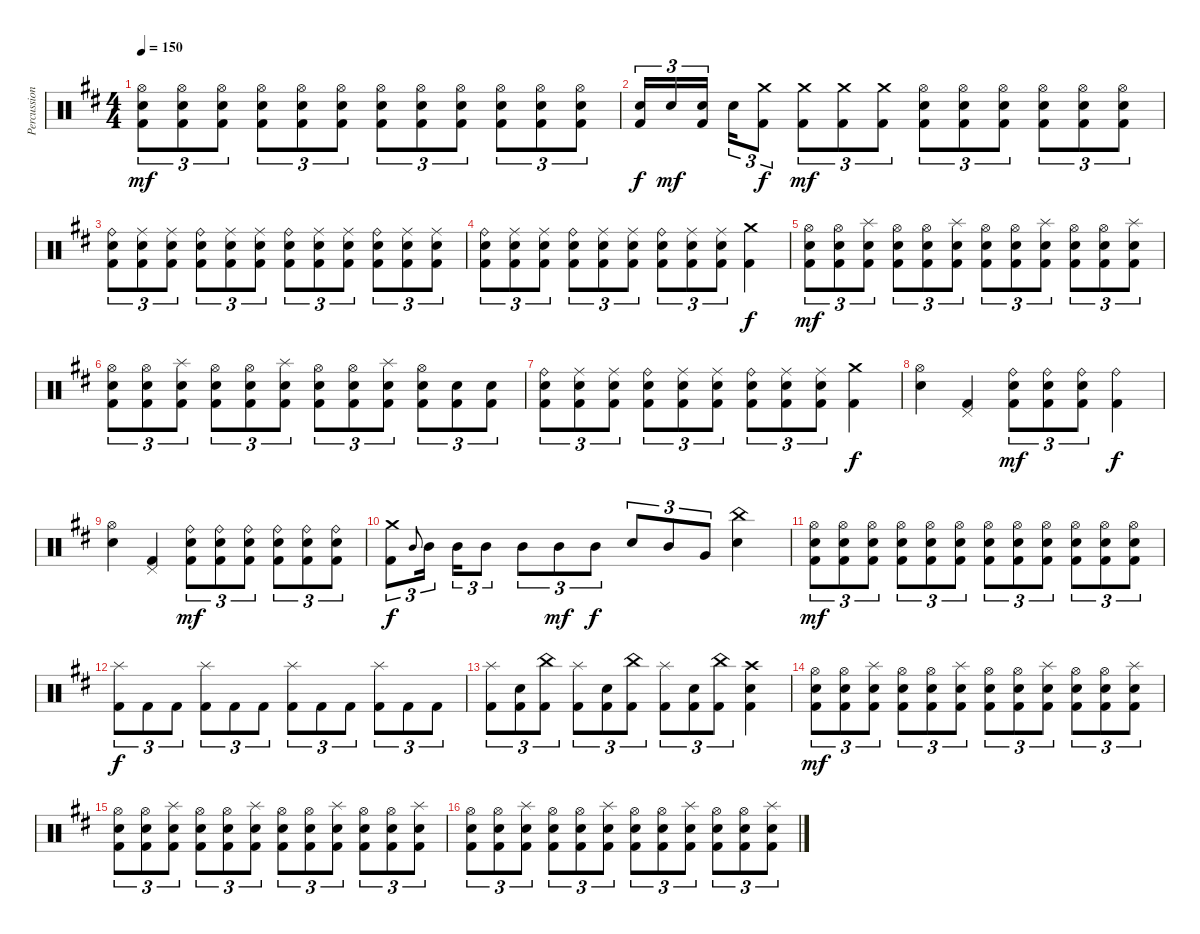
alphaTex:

\track ("Percussion" "Percussion") {instrument percussion}
\staff {score}
\articulation defaults
\ts (4 4)
\tempo 150
\clef neutral
\ks bminor
("Hi-Hat (open)" "Snare (hit) 2" "Kick (hit) 2").8{tu (3 2) dy mf} ("Hi-Hat (open)" "Snare (hit) 2" "Kick (hit) 2").8{tu (3 2)} ("Hi-Hat (open)" "Snare (hit) 2" "Kick (hit) 2").8{tu (3 2)} ("Hi-Hat (open)" "Snare (hit) 2" "Kick (hit) 2").8{tu (3 2)} ("Hi-Hat (open)" "Snare (hit) 2" "Kick (hit) 2").8{tu (3 2)} ("Hi-Hat (open)" "Snare (hit) 2" "Kick (hit) 2").8{tu (3 2)} ("Hi-Hat (open)" "Snare (hit) 2" "Kick (hit) 2").8{tu (3 2)} ("Hi-Hat (open)" "Snare (hit) 2" "Kick (hit) 2").8{tu (3 2)} ("Hi-Hat (open)" "Snare (hit) 2" "Kick (hit) 2").8{tu (3 2)} ("Hi-Hat (open)" "Snare (hit) 2" "Kick (hit) 2").8{tu (3 2)} ("Hi-Hat (open)" "Snare (hit) 2" "Kick (hit) 2").8{tu (3 2)} ("Hi-Hat (open)" "Snare (hit) 2" "Kick (hit) 2").8{tu (3 2)} |
("Snare (hit) 2" "Kick (hit) 2").16{tu (3 2) dy f} "Snare (hit) 2".16{tu (3 2) dy mf} ("Snare (hit) 2" "Kick (hit) 2").16{tu (3 2) beam splitsecondary} "Snare (hit) 2".16{tu (3 2)} ("Crash medium (hit)" "Kick (hit) 2").8{tu (3 2) dy f} ("Crash medium (hit)" "Kick (hit) 2").8{tu (3 2) dy mf} ("Crash medium (hit)" "Kick (hit) 2").8{tu (3 2)} ("Crash medium (hit)" "Kick (hit) 2").8{tu (3 2)} ("Hi-Hat (open)" "Snare (hit) 2" "Kick (hit) 2").8{tu (3 2)} ("Hi-Hat (open)" "Snare (hit) 2" "Kick (hit) 2").8{tu (3 2)} ("Hi-Hat (open)" "Snare (hit) 2" "Kick (hit) 2").8{tu (3 2)} ("Hi-Hat (open)" "Snare (hit) 2" "Kick (hit) 2").8{tu (3 2)} ("Hi-Hat (open)" "Snare (hit) 2" "Kick (hit) 2").8{tu (3 2)} ("Hi-Hat (open)" "Snare (hit) 2" "Kick (hit) 2").8{tu (3 2)} |
("Ride (bell)" "Snare (hit) 2" "Kick (hit) 2").8{tu (3 2)} ("Ride (middle)" "Snare (hit) 2" "Kick (hit) 2").8{tu (3 2)} ("Ride (middle)" "Snare (hit) 2" "Kick (hit) 2").8{tu (3 2)} ("Ride (bell)" "Snare (hit) 2" "Kick (hit) 2").8{tu (3 2)} ("Ride (middle)" "Snare (hit) 2" "Kick (hit) 2").8{tu (3 2)} ("Ride (middle)" "Snare (hit) 2" "Kick (hit) 2").8{tu (3 2)} ("Ride (bell)" "Snare (hit) 2" "Kick (hit) 2").8{tu (3 2)} ("Ride (middle)" "Snare (hit) 2" "Kick (hit) 2").8{tu (3 2)} ("Ride (middle)" "Snare (hit) 2" "Kick (hit) 2").8{tu (3 2)} ("Ride (bell)" "Snare (hit) 2" "Kick (hit) 2").8{tu (3 2)} ("Ride (middle)" "Snare (hit) 2" "Kick (hit) 2").8{tu (3 2)} ("Ride (middle)" "Snare (hit) 2" "Kick (hit) 2").8{tu (3 2)} |
("Ride (bell)" "Snare (hit) 2" "Kick (hit) 2").8{tu (3 2)} ("Ride (middle)" "Snare (hit) 2" "Kick (hit) 2").8{tu (3 2)} ("Ride (middle)" "Snare (hit) 2" "Kick (hit) 2").8{tu (3 2)} ("Ride (bell)" "Snare (hit) 2" "Kick (hit) 2").8{tu (3 2)} ("Ride (middle)" "Snare (hit) 2" "Kick (hit) 2").8{tu (3 2)} ("Ride (middle)" "Snare (hit) 2" "Kick (hit) 2").8{tu (3 2)} ("Ride (bell)" "Snare (hit) 2" "Kick (hit) 2").8{tu (3 2)} ("Ride (middle)" "Snare (hit) 2" "Kick (hit) 2").8{tu (3 2)} ("Ride (middle)" "Snare (hit) 2" "Kick (hit) 2").8{tu (3 2)} ("Crash medium (hit)" "Kick (hit) 2").4{dy f} |
("Hi-Hat (open)" "Snare (hit) 2" "Kick (hit) 2").8{tu (3 2) dy mf} ("Hi-Hat (open)" "Snare (hit) 2" "Kick (hit) 2").8{tu (3 2)} ("Splash (hit)" "Snare (hit) 2" "Kick (hit) 2").8{tu (3 2)} ("Hi-Hat (open)" "Snare (hit) 2" "Kick (hit) 2").8{tu (3 2)} ("Hi-Hat (open)" "Snare (hit) 2" "Kick (hit) 2").8{tu (3 2)} ("Splash (hit)" "Snare (hit) 2" "Kick (hit) 2").8{tu (3 2)} ("Hi-Hat (open)" "Snare (hit) 2" "Kick (hit) 2").8{tu (3 2)} ("Hi-Hat (open)" "Snare (hit) 2" "Kick (hit) 2").8{tu (3 2)} ("Splash (hit)" "Snare (hit) 2" "Kick (hit) 2").8{tu (3 2)} ("Hi-Hat (open)" "Snare (hit) 2" "Kick (hit) 2").8{tu (3 2)} ("Hi-Hat (open)" "Snare (hit) 2" "Kick (hit) 2").8{tu (3 2)} ("Splash (hit)" "Snare (hit) 2" "Kick (hit) 2").8{tu (3 2)} |
("Hi-Hat (open)" "Snare (hit) 2" "Kick (hit) 2").8{tu (3 2)} ("Hi-Hat (open)" "Snare (hit) 2" "Kick (hit) 2").8{tu (3 2)} ("Splash (hit)" "Snare (hit) 2" "Kick (hit) 2").8{tu (3 2)} ("Hi-Hat (open)" "Snare (hit) 2" "Kick (hit) 2").8{tu (3 2)} ("Hi-Hat (open)" "Snare (hit) 2" "Kick (hit) 2").8{tu (3 2)} ("Splash (hit)" "Snare (hit) 2" "Kick (hit) 2").8{tu (3 2)} ("Hi-Hat (open)" "Snare (hit) 2" "Kick (hit) 2").8{tu (3 2)} ("Hi-Hat (open)" "Snare (hit) 2" "Kick (hit) 2").8{tu (3 2)} ("Splash (hit)" "Snare (hit) 2" "Kick (hit) 2").8{tu (3 2)} ("Hi-Hat (open)" "Snare (hit) 2" "Kick (hit) 2").8{tu (3 2)} ("Snare (hit) 2" "Kick (hit) 2").8{tu (3 2)} ("Snare (hit) 2" "Kick (hit) 2").8{tu (3 2)} |
("Ride (bell)" "Snare (hit) 2" "Kick (hit) 2").8{tu (3 2)} ("Ride (middle)" "Snare (hit) 2" "Kick (hit) 2").8{tu (3 2)} ("Ride (middle)" "Snare (hit) 2" "Kick (hit) 2").8{tu (3 2)} ("Ride (bell)" "Snare (hit) 2" "Kick (hit) 2").8{tu (3 2)} ("Ride (middle)" "Snare (hit) 2" "Kick (hit) 2").8{tu (3 2)} ("Ride (middle)" "Snare (hit) 2" "Kick (hit) 2").8{tu (3 2)} ("Ride (bell)" "Snare (hit) 2" "Kick (hit) 2").8{tu (3 2)} ("Ride (middle)" "Snare (hit) 2" "Kick (hit) 2").8{tu (3 2)} ("Ride (middle)" "Snare (hit) 2" "Kick (hit) 2").8{tu (3 2)} ("Crash medium (hit)" "Kick (hit) 2").4{dy f} |
("Hi-Hat (open)" "Snare (hit) 2").4 ("Pedal Hi-Hat (hit)" "Kick (hit) 2").4 ("Ride (bell)" "Snare (hit) 2" "Kick (hit) 2").8{tu (3 2) dy mf} ("Ride (bell)" "Snare (hit) 2" "Kick (hit) 2").8{tu (3 2)} ("Ride (bell)" "Snare (hit) 2" "Kick (hit) 2").8{tu (3 2)} ("Ride (bell)" "Kick (hit) 2").4{dy f} |
("Hi-Hat (open)" "Snare (hit) 2").4 ("Pedal Hi-Hat (hit)" "Kick (hit) 2").4 ("Ride (bell)" "Snare (hit) 2" "Kick (hit) 2").8{tu (3 2) dy mf} ("Ride (bell)" "Snare (hit) 2" "Kick (hit) 2").8{tu (3 2)} ("Ride (bell)" "Snare (hit) 2" "Kick (hit) 2").8{tu (3 2)} ("Ride (bell)" "Snare (hit) 2" "Kick (hit) 2").8{tu (3 2)} ("Ride (bell)" "Snare (hit) 2" "Kick (hit) 2").8{tu (3 2)} ("Ride (bell)" "Snare (hit) 2" "Kick (hit) 2").8{tu (3 2)} |
("Crash medium (hit)" "Kick (hit) 2").8{tu (3 2) dy f} "Mid Tom (hit)".8{gr onbeat} "Mid Tom (hit)".16{tu (3 2) beam splitsecondary} "Mid Tom (hit)".16{tu (3 2)} "Mid Tom (hit)".8{tu (3 2)} "Mid Tom (hit)".8{tu (3 2)} "Mid Tom (hit)".8{tu (3 2) dy mf} "Mid Tom (hit)".8{tu (3 2) dy f} "Snare (hit) 2".8{tu (3 2)} "Mid Tom (hit)".8{tu (3 2)} "Very Low Tom (hit)".8{tu (3 2)} ("China (hit)" "Snare (hit) 2").4 |
("Hi-Hat (open)" "Snare (hit) 2" "Kick (hit) 2").8{tu (3 2) dy mf} ("Hi-Hat (open)" "Snare (hit) 2" "Kick (hit) 2").8{tu (3 2)} ("Hi-Hat (open)" "Snare (hit) 2" "Kick (hit) 2").8{tu (3 2)} ("Hi-Hat (open)" "Snare (hit) 2" "Kick (hit) 2").8{tu (3 2)} ("Hi-Hat (open)" "Snare (hit) 2" "Kick (hit) 2").8{tu (3 2)} ("Hi-Hat (open)" "Snare (hit) 2" "Kick (hit) 2").8{tu (3 2)} ("Hi-Hat (open)" "Snare (hit) 2" "Kick (hit) 2").8{tu (3 2)} ("Hi-Hat (open)" "Snare (hit) 2" "Kick (hit) 2").8{tu (3 2)} ("Hi-Hat (open)" "Snare (hit) 2" "Kick (hit) 2").8{tu (3 2)} ("Hi-Hat (open)" "Snare (hit) 2" "Kick (hit) 2").8{tu (3 2)} ("Hi-Hat (open)" "Snare (hit) 2" "Kick (hit) 2").8{tu (3 2)} ("Hi-Hat (open)" "Snare (hit) 2" "Kick (hit) 2").8{tu (3 2)} |
("Splash (hit)" "Kick (hit) 2").8{tu (3 2) dy f} "Kick (hit) 2".8{tu (3 2)} "Kick (hit) 2".8{tu (3 2)} ("Splash (hit)" "Kick (hit) 2").8{tu (3 2)} "Kick (hit) 2".8{tu (3 2)} "Kick (hit) 2".8{tu (3 2)} ("Splash (hit)" "Kick (hit) 2").8{tu (3 2)} "Kick (hit) 2".8{tu (3 2)} "Kick (hit) 2".8{tu (3 2)} ("Splash (hit)" "Kick (hit) 2").8{tu (3 2)} "Kick (hit) 2".8{tu (3 2)} "Kick (hit) 2".8{tu (3 2)} |
("Splash (hit)" "Kick (hit) 2").8{tu (3 2)} ("Snare (hit) 2" "Kick (hit) 2").8{tu (3 2)} ("China (hit)" "Kick (hit) 2").8{tu (3 2)} ("Splash (hit)" "Kick (hit) 2").8{tu (3 2)} ("Snare (hit) 2" "Kick (hit) 2").8{tu (3 2)} ("China (hit)" "Kick (hit) 2").8{tu (3 2)} ("Splash (hit)" "Kick (hit) 2").8{tu (3 2)} ("Snare (hit) 2" "Kick (hit) 2").8{tu (3 2)} ("China (hit)" "Kick (hit) 2").8{tu (3 2)} ("Crash high (hit)" "Snare (hit) 2" "Kick (hit) 2").4 |
("Hi-Hat (open)" "Snare (hit) 2" "Kick (hit) 2").8{tu (3 2) dy mf} ("Hi-Hat (open)" "Snare (hit) 2" "Kick (hit) 2").8{tu (3 2)} ("Splash (hit)" "Snare (hit) 2" "Kick (hit) 2").8{tu (3 2)} ("Hi-Hat (open)" "Snare (hit) 2" "Kick (hit) 2").8{tu (3 2)} ("Hi-Hat (open)" "Snare (hit) 2" "Kick (hit) 2").8{tu (3 2)} ("Splash (hit)" "Snare (hit) 2" "Kick (hit) 2").8{tu (3 2)} ("Hi-Hat (open)" "Snare (hit) 2" "Kick (hit) 2").8{tu (3 2)} ("Hi-Hat (open)" "Snare (hit) 2" "Kick (hit) 2").8{tu (3 2)} ("Splash (hit)" "Snare (hit) 2" "Kick (hit) 2").8{tu (3 2)} ("Hi-Hat (open)" "Snare (hit) 2" "Kick (hit) 2").8{tu (3 2)} ("Hi-Hat (open)" "Snare (hit) 2" "Kick (hit) 2").8{tu (3 2)} ("Splash (hit)" "Snare (hit) 2" "Kick (hit) 2").8{tu (3 2)} |
("Hi-Hat (open)" "Snare (hit) 2" "Kick (hit) 2").8{tu (3 2)} ("Hi-Hat (open)" "Snare (hit) 2" "Kick (hit) 2").8{tu (3 2)} ("Splash (hit)" "Snare (hit) 2" "Kick (hit) 2").8{tu (3 2)} ("Hi-Hat (open)" "Snare (hit) 2" "Kick (hit) 2").8{tu (3 2)} ("Hi-Hat (open)" "Snare (hit) 2" "Kick (hit) 2").8{tu (3 2)} ("Splash (hit)" "Snare (hit) 2" "Kick (hit) 2").8{tu (3 2)} ("Hi-Hat (open)" "Snare (hit) 2" "Kick (hit) 2").8{tu (3 2)} ("Hi-Hat (open)" "Snare (hit) 2" "Kick (hit) 2").8{tu (3 2)} ("Splash (hit)" "Snare (hit) 2" "Kick (hit) 2").8{tu (3 2)} ("Hi-Hat (open)" "Snare (hit) 2" "Kick (hit) 2").8{tu (3 2)} ("Hi-Hat (open)" "Snare (hit) 2" "Kick (hit) 2").8{tu (3 2)} ("Splash (hit)" "Snare (hit) 2" "Kick (hit) 2").8{tu (3 2)} |
("Hi-Hat (open)" "Snare (hit) 2" "Kick (hit) 2").8{tu (3 2)} ("Hi-Hat (open)" "Snare (hit) 2" "Kick (hit) 2").8{tu (3 2)} ("Splash (hit)" "Snare (hit) 2" "Kick (hit) 2").8{tu (3 2)} ("Hi-Hat (open)" "Snare (hit) 2" "Kick (hit) 2").8{tu (3 2)} ("Hi-Hat (open)" "Snare (hit) 2" "Kick (hit) 2").8{tu (3 2)} ("Splash (hit)" "Snare (hit) 2" "Kick (hit) 2").8{tu (3 2)} ("Hi-Hat (open)" "Snare (hit) 2" "Kick (hit) 2").8{tu (3 2)} ("Hi-Hat (open)" "Snare (hit) 2" "Kick (hit) 2").8{tu (3 2)} ("Splash (hit)" "Snare (hit) 2" "Kick (hit) 2").8{tu (3 2)} ("Hi-Hat (open)" "Snare (hit) 2" "Kick (hit) 2").8{tu (3 2)} ("Hi-Hat (open)" "Snare (hit) 2" "Kick (hit) 2").8{tu (3 2)} ("Splash (hit)" "Snare (hit) 2" "Kick (hit) 2").8{tu (3 2)}
